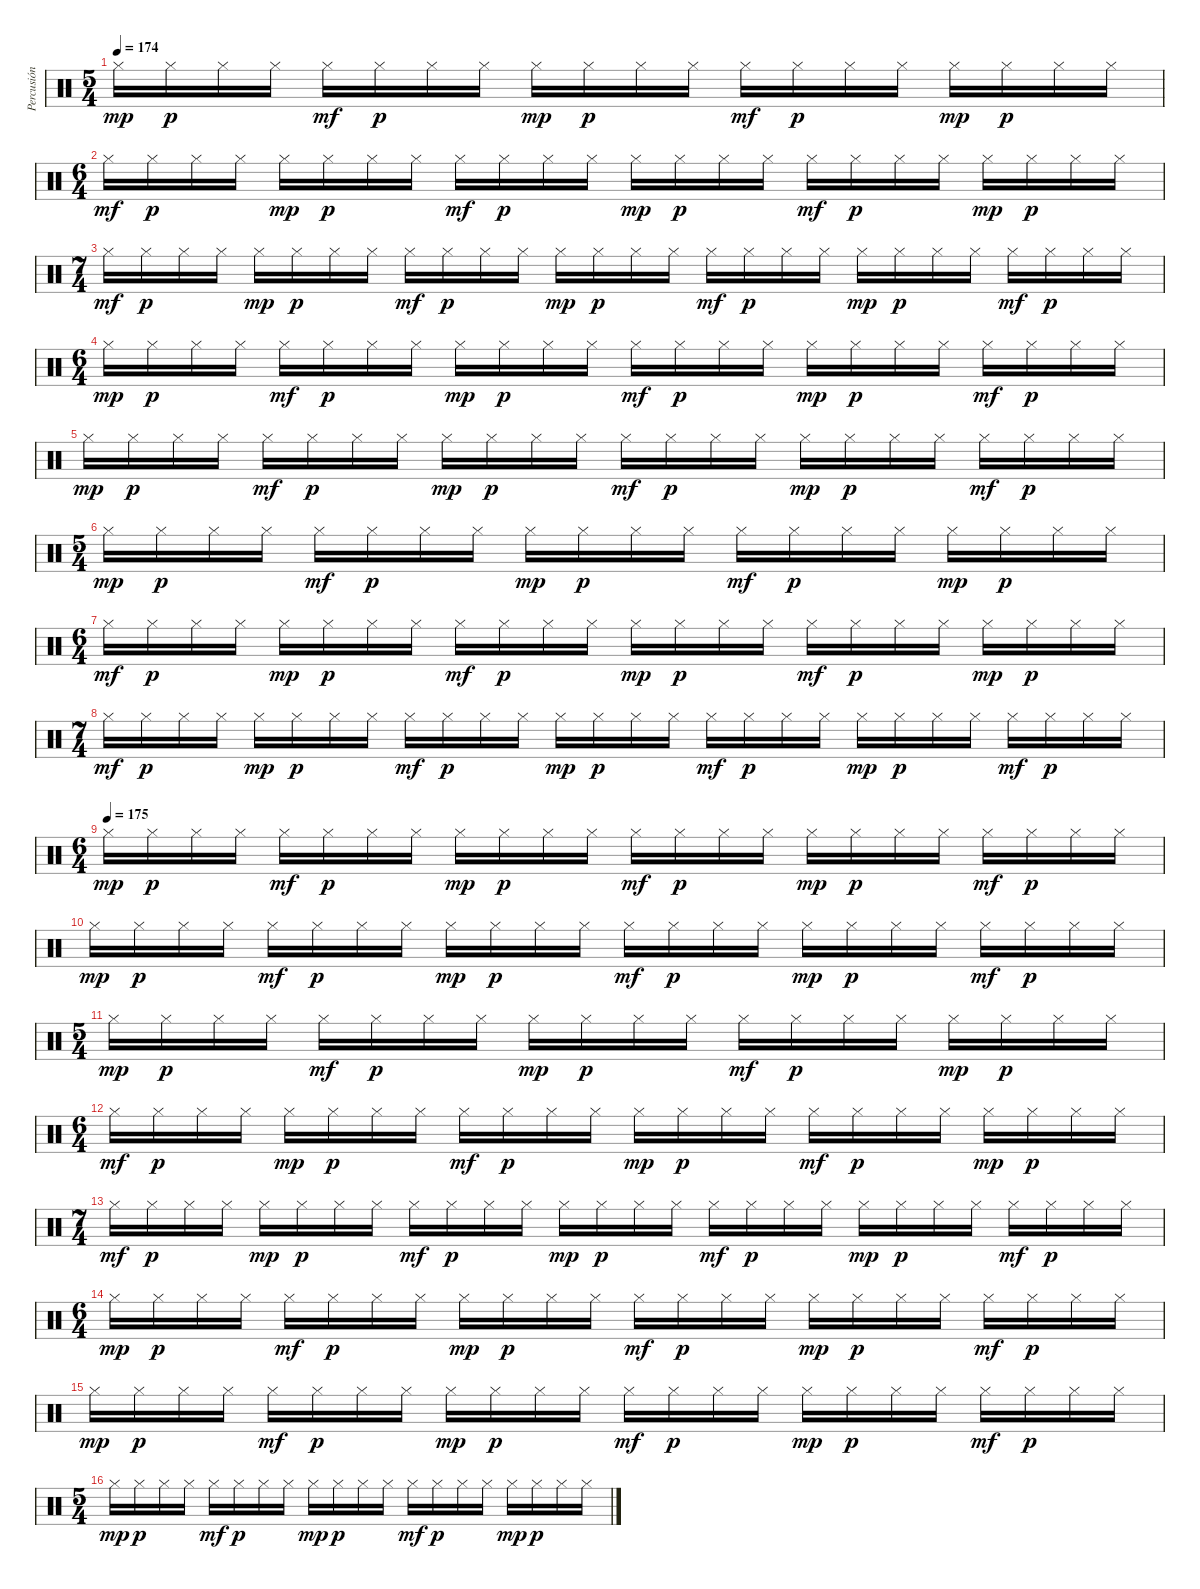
\track ("Percusión" "Percusión") {instrument percussion}
\staff {score}
\articulation defaults
\ts (5 4)
\tempo 174
\clef neutral
\ks c "Hi-Hat (closed)".16{dy mp} "Hi-Hat (closed)".16{dy p} "Hi-Hat (closed)".16 "Hi-Hat (closed)".16 "Hi-Hat (closed)".16{dy mf} "Hi-Hat (closed)".16{dy p} "Hi-Hat (closed)".16 "Hi-Hat (closed)".16 "Hi-Hat (closed)".16{dy mp} "Hi-Hat (closed)".16{dy p} "Hi-Hat (closed)".16 "Hi-Hat (closed)".16 "Hi-Hat (closed)".16{dy mf} "Hi-Hat (closed)".16{dy p} "Hi-Hat (closed)".16 "Hi-Hat (closed)".16 "Hi-Hat (closed)".16{dy mp} "Hi-Hat (closed)".16{dy p} "Hi-Hat (closed)".16 "Hi-Hat (closed)".16
|
\ts (6 4)
"Hi-Hat (closed)".16{dy mf} "Hi-Hat (closed)".16{dy p} "Hi-Hat (closed)".16 "Hi-Hat (closed)".16 "Hi-Hat (closed)".16{dy mp} "Hi-Hat (closed)".16{dy p} "Hi-Hat (closed)".16 "Hi-Hat (closed)".16 "Hi-Hat (closed)".16{dy mf} "Hi-Hat (closed)".16{dy p} "Hi-Hat (closed)".16 "Hi-Hat (closed)".16 "Hi-Hat (closed)".16{dy mp} "Hi-Hat (closed)".16{dy p} "Hi-Hat (closed)".16 "Hi-Hat (closed)".16 "Hi-Hat (closed)".16{dy mf} "Hi-Hat (closed)".16{dy p} "Hi-Hat (closed)".16 "Hi-Hat (closed)".16 "Hi-Hat (closed)".16{dy mp} "Hi-Hat (closed)".16{dy p} "Hi-Hat (closed)".16 "Hi-Hat (closed)".16 |
\ts (7 4)
"Hi-Hat (closed)".16{dy mf} "Hi-Hat (closed)".16{dy p} "Hi-Hat (closed)".16 "Hi-Hat (closed)".16 "Hi-Hat (closed)".16{dy mp} "Hi-Hat (closed)".16{dy p} "Hi-Hat (closed)".16 "Hi-Hat (closed)".16 "Hi-Hat (closed)".16{dy mf} "Hi-Hat (closed)".16{dy p} "Hi-Hat (closed)".16 "Hi-Hat (closed)".16 "Hi-Hat (closed)".16{dy mp} "Hi-Hat (closed)".16{dy p} "Hi-Hat (closed)".16 "Hi-Hat (closed)".16 "Hi-Hat (closed)".16{dy mf} "Hi-Hat (closed)".16{dy p} "Hi-Hat (closed)".16 "Hi-Hat (closed)".16 "Hi-Hat (closed)".16{dy mp} "Hi-Hat (closed)".16{dy p} "Hi-Hat (closed)".16 "Hi-Hat (closed)".16 "Hi-Hat (closed)".16{dy mf} "Hi-Hat (closed)".16{dy p} "Hi-Hat (closed)".16 "Hi-Hat (closed)".16 |
\ts (6 4)
"Hi-Hat (closed)".16{dy mp} "Hi-Hat (closed)".16{dy p} "Hi-Hat (closed)".16 "Hi-Hat (closed)".16 "Hi-Hat (closed)".16{dy mf} "Hi-Hat (closed)".16{dy p} "Hi-Hat (closed)".16 "Hi-Hat (closed)".16 "Hi-Hat (closed)".16{dy mp} "Hi-Hat (closed)".16{dy p} "Hi-Hat (closed)".16 "Hi-Hat (closed)".16 "Hi-Hat (closed)".16{dy mf} "Hi-Hat (closed)".16{dy p} "Hi-Hat (closed)".16 "Hi-Hat (closed)".16 "Hi-Hat (closed)".16{dy mp} "Hi-Hat (closed)".16{dy p} "Hi-Hat (closed)".16 "Hi-Hat (closed)".16 "Hi-Hat (closed)".16{dy mf} "Hi-Hat (closed)".16{dy p} "Hi-Hat (closed)".16 "Hi-Hat (closed)".16 |
"Hi-Hat (closed)".16{dy mp} "Hi-Hat (closed)".16{dy p} "Hi-Hat (closed)".16 "Hi-Hat (closed)".16 "Hi-Hat (closed)".16{dy mf} "Hi-Hat (closed)".16{dy p} "Hi-Hat (closed)".16 "Hi-Hat (closed)".16 "Hi-Hat (closed)".16{dy mp} "Hi-Hat (closed)".16{dy p} "Hi-Hat (closed)".16 "Hi-Hat (closed)".16 "Hi-Hat (closed)".16{dy mf} "Hi-Hat (closed)".16{dy p} "Hi-Hat (closed)".16 "Hi-Hat (closed)".16 "Hi-Hat (closed)".16{dy mp} "Hi-Hat (closed)".16{dy p} "Hi-Hat (closed)".16 "Hi-Hat (closed)".16 "Hi-Hat (closed)".16{dy mf} "Hi-Hat (closed)".16{dy p} "Hi-Hat (closed)".16 "Hi-Hat (closed)".16 |
\ts (5 4)
"Hi-Hat (closed)".16{dy mp} "Hi-Hat (closed)".16{dy p} "Hi-Hat (closed)".16 "Hi-Hat (closed)".16 "Hi-Hat (closed)".16{dy mf} "Hi-Hat (closed)".16{dy p} "Hi-Hat (closed)".16 "Hi-Hat (closed)".16 "Hi-Hat (closed)".16{dy mp} "Hi-Hat (closed)".16{dy p} "Hi-Hat (closed)".16 "Hi-Hat (closed)".16 "Hi-Hat (closed)".16{dy mf} "Hi-Hat (closed)".16{dy p} "Hi-Hat (closed)".16 "Hi-Hat (closed)".16 "Hi-Hat (closed)".16{dy mp} "Hi-Hat (closed)".16{dy p} "Hi-Hat (closed)".16 "Hi-Hat (closed)".16 |
\ts (6 4)
"Hi-Hat (closed)".16{dy mf} "Hi-Hat (closed)".16{dy p} "Hi-Hat (closed)".16 "Hi-Hat (closed)".16 "Hi-Hat (closed)".16{dy mp} "Hi-Hat (closed)".16{dy p} "Hi-Hat (closed)".16 "Hi-Hat (closed)".16 "Hi-Hat (closed)".16{dy mf} "Hi-Hat (closed)".16{dy p} "Hi-Hat (closed)".16 "Hi-Hat (closed)".16 "Hi-Hat (closed)".16{dy mp} "Hi-Hat (closed)".16{dy p} "Hi-Hat (closed)".16 "Hi-Hat (closed)".16 "Hi-Hat (closed)".16{dy mf} "Hi-Hat (closed)".16{dy p} "Hi-Hat (closed)".16 "Hi-Hat (closed)".16 "Hi-Hat (closed)".16{dy mp} "Hi-Hat (closed)".16{dy p} "Hi-Hat (closed)".16 "Hi-Hat (closed)".16 |
\ts (7 4)
"Hi-Hat (closed)".16{dy mf} "Hi-Hat (closed)".16{dy p} "Hi-Hat (closed)".16 "Hi-Hat (closed)".16 "Hi-Hat (closed)".16{dy mp} "Hi-Hat (closed)".16{dy p} "Hi-Hat (closed)".16 "Hi-Hat (closed)".16 "Hi-Hat (closed)".16{dy mf} "Hi-Hat (closed)".16{dy p} "Hi-Hat (closed)".16 "Hi-Hat (closed)".16 "Hi-Hat (closed)".16{dy mp} "Hi-Hat (closed)".16{dy p} "Hi-Hat (closed)".16 "Hi-Hat (closed)".16 "Hi-Hat (closed)".16{dy mf} "Hi-Hat (closed)".16{dy p} "Hi-Hat (closed)".16 "Hi-Hat (closed)".16 "Hi-Hat (closed)".16{dy mp} "Hi-Hat (closed)".16{dy p} "Hi-Hat (closed)".16 "Hi-Hat (closed)".16 "Hi-Hat (closed)".16{dy mf} "Hi-Hat (closed)".16{dy p} "Hi-Hat (closed)".16 "Hi-Hat (closed)".16 |
\ts (6 4)
\tempo (175)
"Hi-Hat (closed)".16{dy mp} "Hi-Hat (closed)".16{dy p} "Hi-Hat (closed)".16 "Hi-Hat (closed)".16 "Hi-Hat (closed)".16{dy mf} "Hi-Hat (closed)".16{dy p} "Hi-Hat (closed)".16 "Hi-Hat (closed)".16 "Hi-Hat (closed)".16{dy mp} "Hi-Hat (closed)".16{dy p} "Hi-Hat (closed)".16 "Hi-Hat (closed)".16 "Hi-Hat (closed)".16{dy mf} "Hi-Hat (closed)".16{dy p} "Hi-Hat (closed)".16 "Hi-Hat (closed)".16 "Hi-Hat (closed)".16{dy mp} "Hi-Hat (closed)".16{dy p} "Hi-Hat (closed)".16 "Hi-Hat (closed)".16 "Hi-Hat (closed)".16{dy mf} "Hi-Hat (closed)".16{dy p} "Hi-Hat (closed)".16 "Hi-Hat (closed)".16 |
"Hi-Hat (closed)".16{dy mp} "Hi-Hat (closed)".16{dy p} "Hi-Hat (closed)".16 "Hi-Hat (closed)".16 "Hi-Hat (closed)".16{dy mf} "Hi-Hat (closed)".16{dy p} "Hi-Hat (closed)".16 "Hi-Hat (closed)".16 "Hi-Hat (closed)".16{dy mp} "Hi-Hat (closed)".16{dy p} "Hi-Hat (closed)".16 "Hi-Hat (closed)".16 "Hi-Hat (closed)".16{dy mf} "Hi-Hat (closed)".16{dy p} "Hi-Hat (closed)".16 "Hi-Hat (closed)".16 "Hi-Hat (closed)".16{dy mp} "Hi-Hat (closed)".16{dy p} "Hi-Hat (closed)".16 "Hi-Hat (closed)".16 "Hi-Hat (closed)".16{dy mf} "Hi-Hat (closed)".16{dy p} "Hi-Hat (closed)".16 "Hi-Hat (closed)".16 |
\ts (5 4)
"Hi-Hat (closed)".16{dy mp} "Hi-Hat (closed)".16{dy p} "Hi-Hat (closed)".16 "Hi-Hat (closed)".16 "Hi-Hat (closed)".16{dy mf} "Hi-Hat (closed)".16{dy p} "Hi-Hat (closed)".16 "Hi-Hat (closed)".16 "Hi-Hat (closed)".16{dy mp} "Hi-Hat (closed)".16{dy p} "Hi-Hat (closed)".16 "Hi-Hat (closed)".16 "Hi-Hat (closed)".16{dy mf} "Hi-Hat (closed)".16{dy p} "Hi-Hat (closed)".16 "Hi-Hat (closed)".16 "Hi-Hat (closed)".16{dy mp} "Hi-Hat (closed)".16{dy p} "Hi-Hat (closed)".16 "Hi-Hat (closed)".16 |
\ts (6 4)
"Hi-Hat (closed)".16{dy mf} "Hi-Hat (closed)".16{dy p} "Hi-Hat (closed)".16 "Hi-Hat (closed)".16 "Hi-Hat (closed)".16{dy mp} "Hi-Hat (closed)".16{dy p} "Hi-Hat (closed)".16 "Hi-Hat (closed)".16 "Hi-Hat (closed)".16{dy mf} "Hi-Hat (closed)".16{dy p} "Hi-Hat (closed)".16 "Hi-Hat (closed)".16 "Hi-Hat (closed)".16{dy mp} "Hi-Hat (closed)".16{dy p} "Hi-Hat (closed)".16 "Hi-Hat (closed)".16 "Hi-Hat (closed)".16{dy mf} "Hi-Hat (closed)".16{dy p} "Hi-Hat (closed)".16 "Hi-Hat (closed)".16 "Hi-Hat (closed)".16{dy mp} "Hi-Hat (closed)".16{dy p} "Hi-Hat (closed)".16 "Hi-Hat (closed)".16 |
\ts (7 4)
"Hi-Hat (closed)".16{dy mf} "Hi-Hat (closed)".16{dy p} "Hi-Hat (closed)".16 "Hi-Hat (closed)".16 "Hi-Hat (closed)".16{dy mp} "Hi-Hat (closed)".16{dy p} "Hi-Hat (closed)".16 "Hi-Hat (closed)".16 "Hi-Hat (closed)".16{dy mf} "Hi-Hat (closed)".16{dy p} "Hi-Hat (closed)".16 "Hi-Hat (closed)".16 "Hi-Hat (closed)".16{dy mp} "Hi-Hat (closed)".16{dy p} "Hi-Hat (closed)".16 "Hi-Hat (closed)".16 "Hi-Hat (closed)".16{dy mf} "Hi-Hat (closed)".16{dy p} "Hi-Hat (closed)".16 "Hi-Hat (closed)".16 "Hi-Hat (closed)".16{dy mp} "Hi-Hat (closed)".16{dy p} "Hi-Hat (closed)".16 "Hi-Hat (closed)".16 "Hi-Hat (closed)".16{dy mf} "Hi-Hat (closed)".16{dy p} "Hi-Hat (closed)".16 "Hi-Hat (closed)".16 |
\ts (6 4)
"Hi-Hat (closed)".16{dy mp} "Hi-Hat (closed)".16{dy p} "Hi-Hat (closed)".16 "Hi-Hat (closed)".16 "Hi-Hat (closed)".16{dy mf} "Hi-Hat (closed)".16{dy p} "Hi-Hat (closed)".16 "Hi-Hat (closed)".16 "Hi-Hat (closed)".16{dy mp} "Hi-Hat (closed)".16{dy p} "Hi-Hat (closed)".16 "Hi-Hat (closed)".16 "Hi-Hat (closed)".16{dy mf} "Hi-Hat (closed)".16{dy p} "Hi-Hat (closed)".16 "Hi-Hat (closed)".16 "Hi-Hat (closed)".16{dy mp} "Hi-Hat (closed)".16{dy p} "Hi-Hat (closed)".16 "Hi-Hat (closed)".16 "Hi-Hat (closed)".16{dy mf} "Hi-Hat (closed)".16{dy p} "Hi-Hat (closed)".16 "Hi-Hat (closed)".16 |
"Hi-Hat (closed)".16{dy mp} "Hi-Hat (closed)".16{dy p} "Hi-Hat (closed)".16 "Hi-Hat (closed)".16 "Hi-Hat (closed)".16{dy mf} "Hi-Hat (closed)".16{dy p} "Hi-Hat (closed)".16 "Hi-Hat (closed)".16 "Hi-Hat (closed)".16{dy mp} "Hi-Hat (closed)".16{dy p} "Hi-Hat (closed)".16 "Hi-Hat (closed)".16 "Hi-Hat (closed)".16{dy mf} "Hi-Hat (closed)".16{dy p} "Hi-Hat (closed)".16 "Hi-Hat (closed)".16 "Hi-Hat (closed)".16{dy mp} "Hi-Hat (closed)".16{dy p} "Hi-Hat (closed)".16 "Hi-Hat (closed)".16 "Hi-Hat (closed)".16{dy mf} "Hi-Hat (closed)".16{dy p} "Hi-Hat (closed)".16 "Hi-Hat (closed)".16 |
\ts (5 4)
"Hi-Hat (closed)".16{dy mp} "Hi-Hat (closed)".16{dy p} "Hi-Hat (closed)".16 "Hi-Hat (closed)".16 "Hi-Hat (closed)".16{dy mf} "Hi-Hat (closed)".16{dy p} "Hi-Hat (closed)".16 "Hi-Hat (closed)".16 "Hi-Hat (closed)".16{dy mp} "Hi-Hat (closed)".16{dy p} "Hi-Hat (closed)".16 "Hi-Hat (closed)".16 "Hi-Hat (closed)".16{dy mf} "Hi-Hat (closed)".16{dy p} "Hi-Hat (closed)".16 "Hi-Hat (closed)".16 "Hi-Hat (closed)".16{dy mp} "Hi-Hat (closed)".16{dy p} "Hi-Hat (closed)".16 "Hi-Hat (closed)".16
